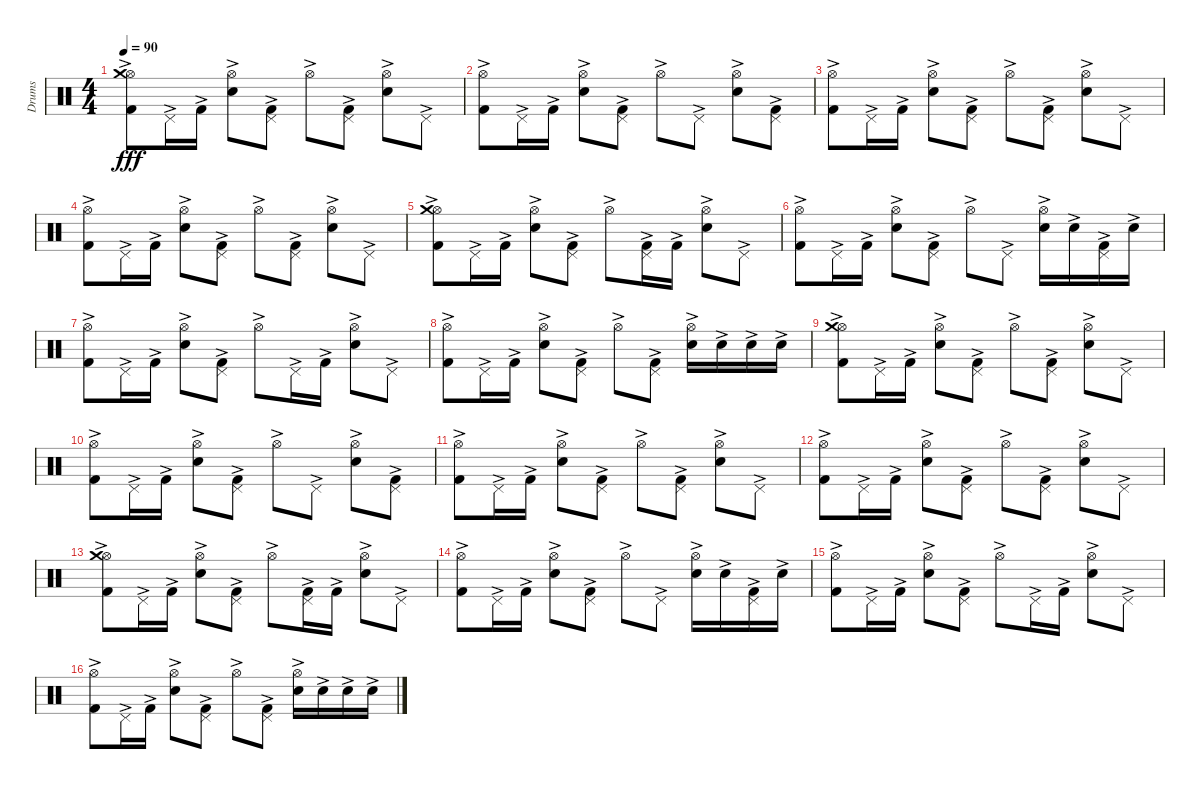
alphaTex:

\track ("Drums" "Drums") {instrument percussion}
\staff {score}
\articulation defaults
\ts (4 4)
\tempo 90
\clef neutral
\ks c
("Hi-Hat (open)"{ac} "Crash medium (hit)"{ac} "Kick (hit) 2"{ac}).8{dy fff} "Pedal Hi-Hat (hit)"{ac}.16 "Kick (hit) 2"{ac}.16 ("Hi-Hat (open)"{ac} "Snare (hit) 2"{ac}).8 ("Pedal Hi-Hat (hit)"{ac} "Kick (hit) 2"{ac}).8 "Hi-Hat (open)"{ac}.8 ("Pedal Hi-Hat (hit)"{ac} "Kick (hit) 2"{ac}).8 ("Hi-Hat (open)"{ac} "Snare (hit) 2"{ac}).8 "Pedal Hi-Hat (hit)"{ac}.8 |
("Hi-Hat (open)"{ac} "Kick (hit) 2"{ac}).8 "Pedal Hi-Hat (hit)"{ac}.16 "Kick (hit) 2"{ac}.16 ("Hi-Hat (open)"{ac} "Snare (hit) 2"{ac}).8 ("Pedal Hi-Hat (hit)"{ac} "Kick (hit) 2"{ac}).8 "Hi-Hat (open)"{ac}.8 "Pedal Hi-Hat (hit)"{ac}.8 ("Hi-Hat (open)"{ac} "Snare (hit) 2"{ac}).8 ("Pedal Hi-Hat (hit)"{ac} "Kick (hit) 2"{ac}).8 |
("Hi-Hat (open)"{ac} "Kick (hit) 2"{ac}).8 "Pedal Hi-Hat (hit)"{ac}.16 "Kick (hit) 2"{ac}.16 ("Hi-Hat (open)"{ac} "Snare (hit) 2"{ac}).8 ("Pedal Hi-Hat (hit)"{ac} "Kick (hit) 2"{ac}).8 "Hi-Hat (open)"{ac}.8 ("Pedal Hi-Hat (hit)"{ac} "Kick (hit) 2"{ac}).8 ("Hi-Hat (open)"{ac} "Snare (hit) 2"{ac}).8 "Pedal Hi-Hat (hit)"{ac}.8 |
("Hi-Hat (open)"{ac} "Kick (hit) 2"{ac}).8 "Pedal Hi-Hat (hit)"{ac}.16 "Kick (hit) 2"{ac}.16 ("Hi-Hat (open)"{ac} "Snare (hit) 2"{ac}).8 ("Pedal Hi-Hat (hit)"{ac} "Kick (hit) 2"{ac}).8 "Hi-Hat (open)"{ac}.8 ("Pedal Hi-Hat (hit)"{ac} "Kick (hit) 2"{ac}).8 ("Hi-Hat (open)"{ac} "Snare (hit) 2"{ac}).8 "Pedal Hi-Hat (hit)"{ac}.8 |
("Hi-Hat (open)"{ac} "Crash medium (hit)"{ac} "Kick (hit) 2"{ac}).8 "Pedal Hi-Hat (hit)"{ac}.16 "Kick (hit) 2"{ac}.16 ("Hi-Hat (open)"{ac} "Snare (hit) 2"{ac}).8 ("Pedal Hi-Hat (hit)"{ac} "Kick (hit) 2"{ac}).8 "Hi-Hat (open)"{ac}.8 ("Pedal Hi-Hat (hit)"{ac} "Kick (hit) 2"{ac}).16 "Kick (hit) 2"{ac}.16 ("Hi-Hat (open)"{ac} "Snare (hit) 2"{ac}).8 "Pedal Hi-Hat (hit)"{ac}.8 |
("Hi-Hat (open)"{ac} "Kick (hit) 2"{ac}).8 "Pedal Hi-Hat (hit)"{ac}.16 "Kick (hit) 2"{ac}.16 ("Hi-Hat (open)"{ac} "Snare (hit) 2"{ac}).8 ("Pedal Hi-Hat (hit)"{ac} "Kick (hit) 2"{ac}).8 "Hi-Hat (open)"{ac}.8 "Pedal Hi-Hat (hit)"{ac}.8 ("Hi-Hat (open)"{ac} "Snare (hit) 2"{ac}).16 "Snare (hit) 2"{ac}.16 ("Pedal Hi-Hat (hit)"{ac} "Kick (hit) 2"{ac}).16 "Snare (hit) 2"{ac}.16 |
("Hi-Hat (open)"{ac} "Kick (hit) 2"{ac}).8 "Pedal Hi-Hat (hit)"{ac}.16 "Kick (hit) 2"{ac}.16 ("Hi-Hat (open)"{ac} "Snare (hit) 2"{ac}).8 ("Pedal Hi-Hat (hit)"{ac} "Kick (hit) 2"{ac}).8 "Hi-Hat (open)"{ac}.8 "Pedal Hi-Hat (hit)"{ac}.16 "Kick (hit) 2"{ac}.16 ("Hi-Hat (open)"{ac} "Snare (hit) 2"{ac}).8 "Pedal Hi-Hat (hit)"{ac}.8 |
("Hi-Hat (open)"{ac} "Kick (hit) 2"{ac}).8 "Pedal Hi-Hat (hit)"{ac}.16 "Kick (hit) 2"{ac}.16 ("Hi-Hat (open)"{ac} "Snare (hit) 2"{ac}).8 ("Pedal Hi-Hat (hit)"{ac} "Kick (hit) 2"{ac}).8 "Hi-Hat (open)"{ac}.8 ("Pedal Hi-Hat (hit)"{ac} "Kick (hit) 2"{ac}).8 ("Hi-Hat (open)"{ac} "Snare (hit) 2"{ac}).16 "Snare (hit) 2"{ac}.16 "Snare (hit) 2"{ac}.16 "Snare (hit) 2"{ac}.16 |
("Hi-Hat (open)"{ac} "Crash medium (hit)"{ac} "Kick (hit) 2"{ac}).8 "Pedal Hi-Hat (hit)"{ac}.16 "Kick (hit) 2"{ac}.16 ("Hi-Hat (open)"{ac} "Snare (hit) 2"{ac}).8 ("Pedal Hi-Hat (hit)"{ac} "Kick (hit) 2"{ac}).8 "Hi-Hat (open)"{ac}.8 ("Pedal Hi-Hat (hit)"{ac} "Kick (hit) 2"{ac}).8 ("Hi-Hat (open)"{ac} "Snare (hit) 2"{ac}).8 "Pedal Hi-Hat (hit)"{ac}.8 |
("Hi-Hat (open)"{ac} "Kick (hit) 2"{ac}).8 "Pedal Hi-Hat (hit)"{ac}.16 "Kick (hit) 2"{ac}.16 ("Hi-Hat (open)"{ac} "Snare (hit) 2"{ac}).8 ("Pedal Hi-Hat (hit)"{ac} "Kick (hit) 2"{ac}).8 "Hi-Hat (open)"{ac}.8 "Pedal Hi-Hat (hit)"{ac}.8 ("Hi-Hat (open)"{ac} "Snare (hit) 2"{ac}).8 ("Pedal Hi-Hat (hit)"{ac} "Kick (hit) 2"{ac}).8 |
("Hi-Hat (open)"{ac} "Kick (hit) 2"{ac}).8 "Pedal Hi-Hat (hit)"{ac}.16 "Kick (hit) 2"{ac}.16 ("Hi-Hat (open)"{ac} "Snare (hit) 2"{ac}).8 ("Pedal Hi-Hat (hit)"{ac} "Kick (hit) 2"{ac}).8 "Hi-Hat (open)"{ac}.8 ("Pedal Hi-Hat (hit)"{ac} "Kick (hit) 2"{ac}).8 ("Hi-Hat (open)"{ac} "Snare (hit) 2"{ac}).8 "Pedal Hi-Hat (hit)"{ac}.8 |
("Hi-Hat (open)"{ac} "Kick (hit) 2"{ac}).8 "Pedal Hi-Hat (hit)"{ac}.16 "Kick (hit) 2"{ac}.16 ("Hi-Hat (open)"{ac} "Snare (hit) 2"{ac}).8 ("Pedal Hi-Hat (hit)"{ac} "Kick (hit) 2"{ac}).8 "Hi-Hat (open)"{ac}.8 ("Pedal Hi-Hat (hit)"{ac} "Kick (hit) 2"{ac}).8 ("Hi-Hat (open)"{ac} "Snare (hit) 2"{ac}).8 "Pedal Hi-Hat (hit)"{ac}.8 |
("Hi-Hat (open)"{ac} "Crash medium (hit)"{ac} "Kick (hit) 2"{ac}).8 "Pedal Hi-Hat (hit)"{ac}.16 "Kick (hit) 2"{ac}.16 ("Hi-Hat (open)"{ac} "Snare (hit) 2"{ac}).8 ("Pedal Hi-Hat (hit)"{ac} "Kick (hit) 2"{ac}).8 "Hi-Hat (open)"{ac}.8 ("Pedal Hi-Hat (hit)"{ac} "Kick (hit) 2"{ac}).16 "Kick (hit) 2"{ac}.16 ("Hi-Hat (open)"{ac} "Snare (hit) 2"{ac}).8 "Pedal Hi-Hat (hit)"{ac}.8 |
("Hi-Hat (open)"{ac} "Kick (hit) 2"{ac}).8 "Pedal Hi-Hat (hit)"{ac}.16 "Kick (hit) 2"{ac}.16 ("Hi-Hat (open)"{ac} "Snare (hit) 2"{ac}).8 ("Pedal Hi-Hat (hit)"{ac} "Kick (hit) 2"{ac}).8 "Hi-Hat (open)"{ac}.8 "Pedal Hi-Hat (hit)"{ac}.8 ("Hi-Hat (open)"{ac} "Snare (hit) 2"{ac}).16 "Snare (hit) 2"{ac}.16 ("Pedal Hi-Hat (hit)"{ac} "Kick (hit) 2"{ac}).16 "Snare (hit) 2"{ac}.16 |
("Hi-Hat (open)"{ac} "Kick (hit) 2"{ac}).8 "Pedal Hi-Hat (hit)"{ac}.16 "Kick (hit) 2"{ac}.16 ("Hi-Hat (open)"{ac} "Snare (hit) 2"{ac}).8 ("Pedal Hi-Hat (hit)"{ac} "Kick (hit) 2"{ac}).8 "Hi-Hat (open)"{ac}.8 "Pedal Hi-Hat (hit)"{ac}.16 "Kick (hit) 2"{ac}.16 ("Hi-Hat (open)"{ac} "Snare (hit) 2"{ac}).8 "Pedal Hi-Hat (hit)"{ac}.8 |
("Hi-Hat (open)"{ac} "Kick (hit) 2"{ac}).8 "Pedal Hi-Hat (hit)"{ac}.16 "Kick (hit) 2"{ac}.16 ("Hi-Hat (open)"{ac} "Snare (hit) 2"{ac}).8 ("Pedal Hi-Hat (hit)"{ac} "Kick (hit) 2"{ac}).8 "Hi-Hat (open)"{ac}.8 ("Pedal Hi-Hat (hit)"{ac} "Kick (hit) 2"{ac}).8 ("Hi-Hat (open)"{ac} "Snare (hit) 2"{ac}).16 "Snare (hit) 2"{ac}.16 "Snare (hit) 2"{ac}.16 "Snare (hit) 2"{ac}.16
